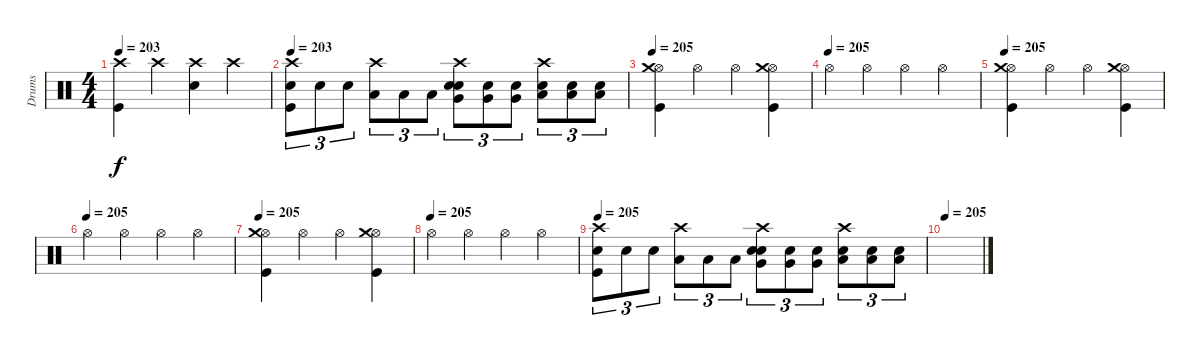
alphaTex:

\track ("Drums" "Drums") {instrument percussion}
\staff {score}
\articulation defaults
\ts (4 4)
\tempo 203
\clef neutral
\ks c
("Crash high (hit)" "Kick (hit)").4{dy f} "Crash high (hit)".4 ("Electric Snare (hit)" "Crash high (hit)").4 "Crash high (hit)".4 |
\tempo 203
("Electric Snare (hit)" "Crash high (hit)" "Kick (hit)").8{tu (3 2)} "Electric Snare (hit)".8{tu (3 2)} "Electric Snare (hit)".8{tu (3 2)} ("Low Tom (hit)" "Crash high (hit)").8{tu (3 2)} "Low Tom (hit)".8{tu (3 2)} "Low Tom (hit)".8{tu (3 2)} ("Electric Snare (hit)" "Very Low Tom (hit)" "Crash high (hit)" "Electric Snare (hit)").8{tu (3 2)} ("Very Low Tom (hit)" "Electric Snare (hit)").8{tu (3 2)} ("Very Low Tom (hit)" "Electric Snare (hit)").8{tu (3 2)} ("Low Floor Tom (hit)" "Crash high (hit)" "Electric Snare (hit)").8{tu (3 2)} ("Low Floor Tom (hit)" "Electric Snare (hit)").8{tu (3 2)} ("Low Floor Tom (hit)" "Electric Snare (hit)").8{tu (3 2)} |
\tempo 205
("Hi-Hat (open)" "Crash medium (hit)" "Kick (hit)").4 "Hi-Hat (open)".4 "Hi-Hat (open)".4 ("Hi-Hat (open)" "Crash medium (hit)" "Kick (hit)").4 |
\tempo (205)
"Hi-Hat (open)".4 "Hi-Hat (open)".4 "Hi-Hat (open)".4 "Hi-Hat (open)".4 |
\tempo 205
("Hi-Hat (open)" "Crash medium (hit)" "Kick (hit)").4 "Hi-Hat (open)".4 "Hi-Hat (open)".4 ("Hi-Hat (open)" "Crash medium (hit)" "Kick (hit)").4 |
\tempo (205)
"Hi-Hat (open)".4 "Hi-Hat (open)".4 "Hi-Hat (open)".4 "Hi-Hat (open)".4 |
\tempo 205
("Hi-Hat (open)" "Crash medium (hit)" "Kick (hit)").4 "Hi-Hat (open)".4 "Hi-Hat (open)".4 ("Hi-Hat (open)" "Crash medium (hit)" "Kick (hit)").4 |
\tempo (205)
"Hi-Hat (open)".4 "Hi-Hat (open)".4 "Hi-Hat (open)".4 "Hi-Hat (open)".4 |
\tempo 205
("Electric Snare (hit)" "Crash high (hit)" "Kick (hit)").8{tu (3 2)} "Electric Snare (hit)".8{tu (3 2)} "Electric Snare (hit)".8{tu (3 2)} ("Low Tom (hit)" "Crash high (hit)").8{tu (3 2)} "Low Tom (hit)".8{tu (3 2)} "Low Tom (hit)".8{tu (3 2)} ("Electric Snare (hit)" "Very Low Tom (hit)" "Crash high (hit)" "Electric Snare (hit)").8{tu (3 2)} ("Very Low Tom (hit)" "Electric Snare (hit)").8{tu (3 2)} ("Very Low Tom (hit)" "Electric Snare (hit)").8{tu (3 2)} ("Low Floor Tom (hit)" "Crash high (hit)" "Electric Snare (hit)").8{tu (3 2)} ("Low Floor Tom (hit)" "Electric Snare (hit)").8{tu (3 2)} ("Low Floor Tom (hit)" "Electric Snare (hit)").8{tu (3 2)} |
\tempo 205
